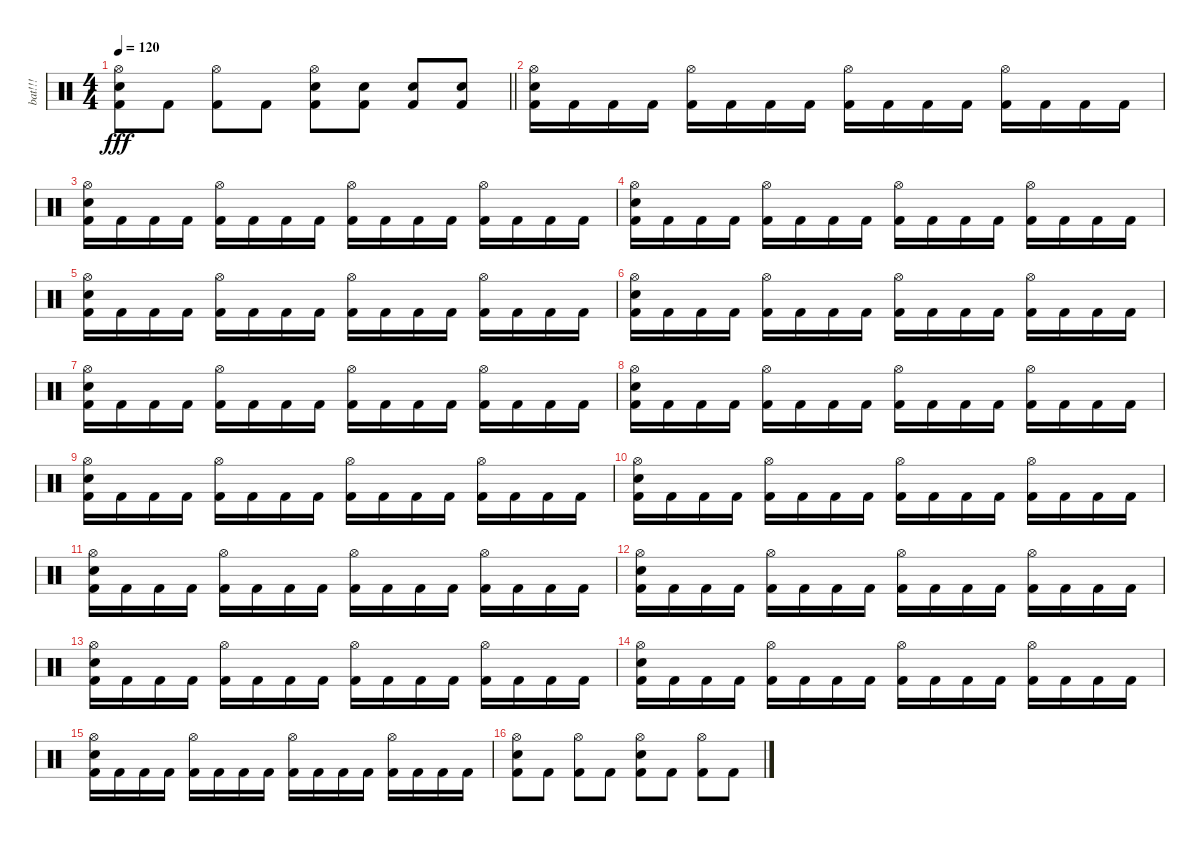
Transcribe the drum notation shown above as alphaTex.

\track ("bat!!!" "bat!!!") {instrument percussion}
\staff {score}
\articulation defaults
\ts (4 4)
\tempo 120
\clef neutral
\barLineRight lightlight
\ks c
("Hi-Hat (open)" "Snare (hit) 2" "Kick (hit) 2").8{dy fff} "Kick (hit) 2".8 ("Hi-Hat (open)" "Kick (hit) 2").8 "Kick (hit) 2".8 ("Hi-Hat (open)" "Snare (hit) 2" "Kick (hit) 2").8 ("Snare (hit) 2" "Kick (hit) 2").8 ("Snare (hit) 2" "Kick (hit) 2").8 ("Snare (hit) 2" "Kick (hit) 2").8 |
("Hi-Hat (open)" "Snare (hit) 2" "Kick (hit) 2").16 "Kick (hit) 2".16 "Kick (hit) 2".16 "Kick (hit) 2".16 ("Hi-Hat (open)" "Kick (hit) 2").16 "Kick (hit) 2".16 "Kick (hit) 2".16 "Kick (hit) 2".16 ("Hi-Hat (open)" "Kick (hit) 2").16 "Kick (hit) 2".16 "Kick (hit) 2".16 "Kick (hit) 2".16 ("Hi-Hat (open)" "Kick (hit) 2").16 "Kick (hit) 2".16 "Kick (hit) 2".16 "Kick (hit) 2".16 |
("Hi-Hat (open)" "Snare (hit) 2" "Kick (hit) 2").16 "Kick (hit) 2".16 "Kick (hit) 2".16 "Kick (hit) 2".16 ("Hi-Hat (open)" "Kick (hit) 2").16 "Kick (hit) 2".16 "Kick (hit) 2".16 "Kick (hit) 2".16 ("Hi-Hat (open)" "Kick (hit) 2").16 "Kick (hit) 2".16 "Kick (hit) 2".16 "Kick (hit) 2".16 ("Hi-Hat (open)" "Kick (hit) 2").16 "Kick (hit) 2".16 "Kick (hit) 2".16 "Kick (hit) 2".16 |
("Hi-Hat (open)" "Snare (hit) 2" "Kick (hit) 2").16 "Kick (hit) 2".16 "Kick (hit) 2".16 "Kick (hit) 2".16 ("Hi-Hat (open)" "Kick (hit) 2").16 "Kick (hit) 2".16 "Kick (hit) 2".16 "Kick (hit) 2".16 ("Hi-Hat (open)" "Kick (hit) 2").16 "Kick (hit) 2".16 "Kick (hit) 2".16 "Kick (hit) 2".16 ("Hi-Hat (open)" "Kick (hit) 2").16 "Kick (hit) 2".16 "Kick (hit) 2".16 "Kick (hit) 2".16 |
("Hi-Hat (open)" "Snare (hit) 2" "Kick (hit) 2").16 "Kick (hit) 2".16 "Kick (hit) 2".16 "Kick (hit) 2".16 ("Hi-Hat (open)" "Kick (hit) 2").16 "Kick (hit) 2".16 "Kick (hit) 2".16 "Kick (hit) 2".16 ("Hi-Hat (open)" "Kick (hit) 2").16 "Kick (hit) 2".16 "Kick (hit) 2".16 "Kick (hit) 2".16 ("Hi-Hat (open)" "Kick (hit) 2").16 "Kick (hit) 2".16 "Kick (hit) 2".16 "Kick (hit) 2".16 |
("Hi-Hat (open)" "Snare (hit) 2" "Kick (hit) 2").16 "Kick (hit) 2".16 "Kick (hit) 2".16 "Kick (hit) 2".16 ("Hi-Hat (open)" "Kick (hit) 2").16 "Kick (hit) 2".16 "Kick (hit) 2".16 "Kick (hit) 2".16 ("Hi-Hat (open)" "Kick (hit) 2").16 "Kick (hit) 2".16 "Kick (hit) 2".16 "Kick (hit) 2".16 ("Hi-Hat (open)" "Kick (hit) 2").16 "Kick (hit) 2".16 "Kick (hit) 2".16 "Kick (hit) 2".16 |
("Hi-Hat (open)" "Snare (hit) 2" "Kick (hit) 2").16 "Kick (hit) 2".16 "Kick (hit) 2".16 "Kick (hit) 2".16 ("Hi-Hat (open)" "Kick (hit) 2").16 "Kick (hit) 2".16 "Kick (hit) 2".16 "Kick (hit) 2".16 ("Hi-Hat (open)" "Kick (hit) 2").16 "Kick (hit) 2".16 "Kick (hit) 2".16 "Kick (hit) 2".16 ("Hi-Hat (open)" "Kick (hit) 2").16 "Kick (hit) 2".16 "Kick (hit) 2".16 "Kick (hit) 2".16 |
("Hi-Hat (open)" "Snare (hit) 2" "Kick (hit) 2").16 "Kick (hit) 2".16 "Kick (hit) 2".16 "Kick (hit) 2".16 ("Hi-Hat (open)" "Kick (hit) 2").16 "Kick (hit) 2".16 "Kick (hit) 2".16 "Kick (hit) 2".16 ("Hi-Hat (open)" "Kick (hit) 2").16 "Kick (hit) 2".16 "Kick (hit) 2".16 "Kick (hit) 2".16 ("Hi-Hat (open)" "Kick (hit) 2").16 "Kick (hit) 2".16 "Kick (hit) 2".16 "Kick (hit) 2".16 |
("Hi-Hat (open)" "Snare (hit) 2" "Kick (hit) 2").16 "Kick (hit) 2".16 "Kick (hit) 2".16 "Kick (hit) 2".16 ("Hi-Hat (open)" "Kick (hit) 2").16 "Kick (hit) 2".16 "Kick (hit) 2".16 "Kick (hit) 2".16 ("Hi-Hat (open)" "Kick (hit) 2").16 "Kick (hit) 2".16 "Kick (hit) 2".16 "Kick (hit) 2".16 ("Hi-Hat (open)" "Kick (hit) 2").16 "Kick (hit) 2".16 "Kick (hit) 2".16 "Kick (hit) 2".16 |
("Hi-Hat (open)" "Snare (hit) 2" "Kick (hit) 2").16 "Kick (hit) 2".16 "Kick (hit) 2".16 "Kick (hit) 2".16 ("Hi-Hat (open)" "Kick (hit) 2").16 "Kick (hit) 2".16 "Kick (hit) 2".16 "Kick (hit) 2".16 ("Hi-Hat (open)" "Kick (hit) 2").16 "Kick (hit) 2".16 "Kick (hit) 2".16 "Kick (hit) 2".16 ("Hi-Hat (open)" "Kick (hit) 2").16 "Kick (hit) 2".16 "Kick (hit) 2".16 "Kick (hit) 2".16 |
("Hi-Hat (open)" "Snare (hit) 2" "Kick (hit) 2").16 "Kick (hit) 2".16 "Kick (hit) 2".16 "Kick (hit) 2".16 ("Hi-Hat (open)" "Kick (hit) 2").16 "Kick (hit) 2".16 "Kick (hit) 2".16 "Kick (hit) 2".16 ("Hi-Hat (open)" "Kick (hit) 2").16 "Kick (hit) 2".16 "Kick (hit) 2".16 "Kick (hit) 2".16 ("Hi-Hat (open)" "Kick (hit) 2").16 "Kick (hit) 2".16 "Kick (hit) 2".16 "Kick (hit) 2".16 |
("Hi-Hat (open)" "Snare (hit) 2" "Kick (hit) 2").16 "Kick (hit) 2".16 "Kick (hit) 2".16 "Kick (hit) 2".16 ("Hi-Hat (open)" "Kick (hit) 2").16 "Kick (hit) 2".16 "Kick (hit) 2".16 "Kick (hit) 2".16 ("Hi-Hat (open)" "Kick (hit) 2").16 "Kick (hit) 2".16 "Kick (hit) 2".16 "Kick (hit) 2".16 ("Hi-Hat (open)" "Kick (hit) 2").16 "Kick (hit) 2".16 "Kick (hit) 2".16 "Kick (hit) 2".16 |
("Hi-Hat (open)" "Snare (hit) 2" "Kick (hit) 2").16 "Kick (hit) 2".16 "Kick (hit) 2".16 "Kick (hit) 2".16 ("Hi-Hat (open)" "Kick (hit) 2").16 "Kick (hit) 2".16 "Kick (hit) 2".16 "Kick (hit) 2".16 ("Hi-Hat (open)" "Kick (hit) 2").16 "Kick (hit) 2".16 "Kick (hit) 2".16 "Kick (hit) 2".16 ("Hi-Hat (open)" "Kick (hit) 2").16 "Kick (hit) 2".16 "Kick (hit) 2".16 "Kick (hit) 2".16 |
("Hi-Hat (open)" "Snare (hit) 2" "Kick (hit) 2").16 "Kick (hit) 2".16 "Kick (hit) 2".16 "Kick (hit) 2".16 ("Hi-Hat (open)" "Kick (hit) 2").16 "Kick (hit) 2".16 "Kick (hit) 2".16 "Kick (hit) 2".16 ("Hi-Hat (open)" "Kick (hit) 2").16 "Kick (hit) 2".16 "Kick (hit) 2".16 "Kick (hit) 2".16 ("Hi-Hat (open)" "Kick (hit) 2").16 "Kick (hit) 2".16 "Kick (hit) 2".16 "Kick (hit) 2".16 |
("Hi-Hat (open)" "Snare (hit) 2" "Kick (hit) 2").16 "Kick (hit) 2".16 "Kick (hit) 2".16 "Kick (hit) 2".16 ("Hi-Hat (open)" "Kick (hit) 2").16 "Kick (hit) 2".16 "Kick (hit) 2".16 "Kick (hit) 2".16 ("Hi-Hat (open)" "Kick (hit) 2").16 "Kick (hit) 2".16 "Kick (hit) 2".16 "Kick (hit) 2".16 ("Hi-Hat (open)" "Kick (hit) 2").16 "Kick (hit) 2".16 "Kick (hit) 2".16 "Kick (hit) 2".16 |
("Hi-Hat (open)" "Snare (hit) 2" "Kick (hit) 2").8 "Kick (hit) 2".8 ("Hi-Hat (open)" "Kick (hit) 2").8 "Kick (hit) 2".8 ("Hi-Hat (open)" "Snare (hit) 2" "Kick (hit) 2").8 "Kick (hit) 2".8 ("Hi-Hat (open)" "Kick (hit) 2").8 "Kick (hit) 2".8
